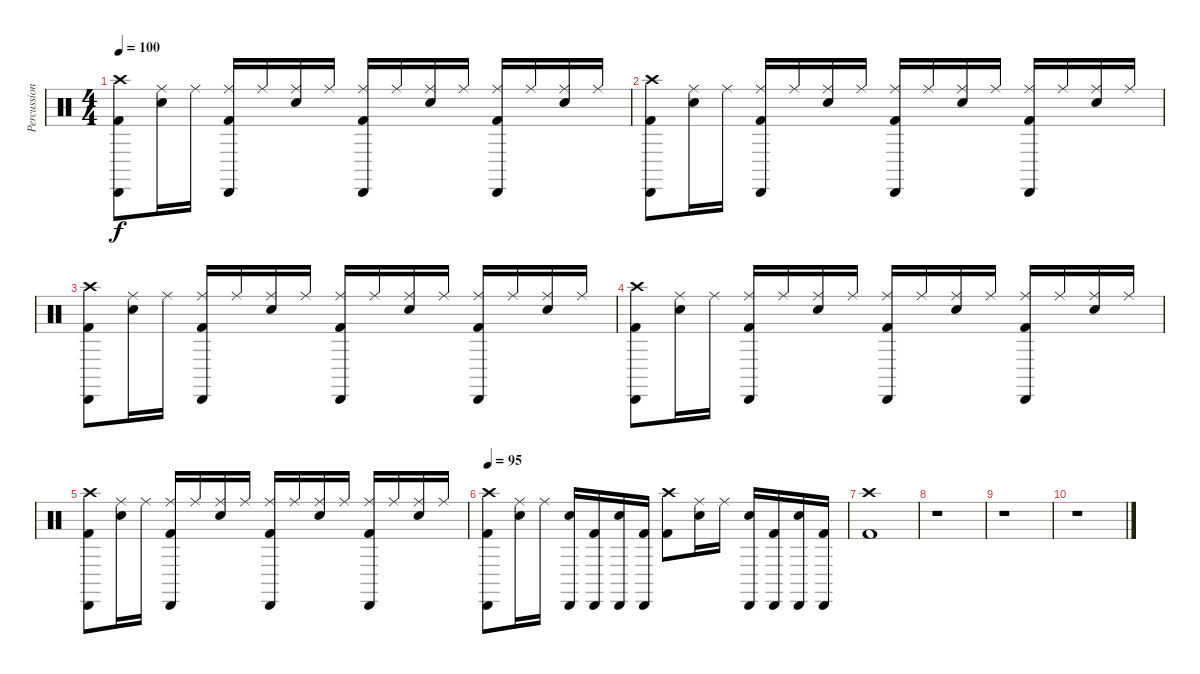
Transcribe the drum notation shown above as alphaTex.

\track ("Percussion" "Percussion") {instrument percussion}
\staff {score}
\articulation defaults
\ts (4 4)
\tempo 100
\clef neutral
\ks c
("Crash high (hit)" "Cabasa (hit)" "Kick (hit) 2").8{dy f} ("Ride (middle)" "Snare (hit) 2").16 "Ride (middle)".16 ("Ride (middle)" "Cabasa (hit)" "Kick (hit) 2").16 "Ride (middle)".16 ("Ride (middle)" "Snare (hit) 2").16 "Ride (middle)".16 ("Ride (middle)" "Cabasa (hit)" "Kick (hit) 2").16 "Ride (middle)".16 ("Ride (middle)" "Snare (hit) 2").16 "Ride (middle)".16 ("Ride (middle)" "Cabasa (hit)" "Kick (hit) 2").16 "Ride (middle)".16 ("Ride (middle)" "Snare (hit) 2").16 "Ride (middle)".16 |
("Crash high (hit)" "Cabasa (hit)" "Kick (hit) 2").8 ("Ride (middle)" "Snare (hit) 2").16 "Ride (middle)".16 ("Ride (middle)" "Cabasa (hit)" "Kick (hit) 2").16 "Ride (middle)".16 ("Ride (middle)" "Snare (hit) 2").16 "Ride (middle)".16 ("Ride (middle)" "Cabasa (hit)" "Kick (hit) 2").16 "Ride (middle)".16 ("Ride (middle)" "Snare (hit) 2").16 "Ride (middle)".16 ("Ride (middle)" "Cabasa (hit)" "Kick (hit) 2").16 "Ride (middle)".16 ("Ride (middle)" "Snare (hit) 2").16 "Ride (middle)".16 |
("Crash high (hit)" "Cabasa (hit)" "Kick (hit) 2").8 ("Ride (middle)" "Snare (hit) 2").16 "Ride (middle)".16 ("Ride (middle)" "Cabasa (hit)" "Kick (hit) 2").16 "Ride (middle)".16 ("Ride (middle)" "Snare (hit) 2").16 "Ride (middle)".16 ("Ride (middle)" "Cabasa (hit)" "Kick (hit) 2").16 "Ride (middle)".16 ("Ride (middle)" "Snare (hit) 2").16 "Ride (middle)".16 ("Ride (middle)" "Cabasa (hit)" "Kick (hit) 2").16 "Ride (middle)".16 ("Ride (middle)" "Snare (hit) 2").16 "Ride (middle)".16 |
("Crash high (hit)" "Cabasa (hit)" "Kick (hit) 2").8 ("Ride (middle)" "Snare (hit) 2").16 "Ride (middle)".16 ("Ride (middle)" "Cabasa (hit)" "Kick (hit) 2").16 "Ride (middle)".16 ("Ride (middle)" "Snare (hit) 2").16 "Ride (middle)".16 ("Ride (middle)" "Cabasa (hit)" "Kick (hit) 2").16 "Ride (middle)".16 ("Ride (middle)" "Snare (hit) 2").16 "Ride (middle)".16 ("Ride (middle)" "Cabasa (hit)" "Kick (hit) 2").16 "Ride (middle)".16 ("Ride (middle)" "Snare (hit) 2").16 "Ride (middle)".16 |
("Crash high (hit)" "Cabasa (hit)" "Kick (hit) 2").8 ("Ride (middle)" "Snare (hit) 2").16 "Ride (middle)".16 ("Ride (middle)" "Cabasa (hit)" "Kick (hit) 2").16 "Ride (middle)".16 ("Ride (middle)" "Snare (hit) 2").16 "Ride (middle)".16 ("Ride (middle)" "Cabasa (hit)" "Kick (hit) 2").16 "Ride (middle)".16 ("Ride (middle)" "Snare (hit) 2").16 "Ride (middle)".16 ("Ride (middle)" "Cabasa (hit)" "Kick (hit) 2").16 "Ride (middle)".16 ("Ride (middle)" "Snare (hit) 2").16 "Ride (middle)".16 |
\tempo 95
("Crash high (hit)" "Cabasa (hit)" "Kick (hit) 2").8 ("Ride (middle)" "Snare (hit) 2").16 "Ride (middle)".16 ("Cabasa (hit)" "Snare (hit) 2").16 ("Cabasa (hit)" "Kick (hit) 2").16 ("Cabasa (hit)" "Snare (hit) 2").16 ("Cabasa (hit)" "Kick (hit) 2").16 ("Crash high (hit)" "Kick (hit) 2").8 ("Ride (middle)" "Snare (hit) 2").16 "Ride (middle)".16 ("Cabasa (hit)" "Snare (hit) 2").16 ("Cabasa (hit)" "Kick (hit) 2").16 ("Cabasa (hit)" "Snare (hit) 2").16 ("Cabasa (hit)" "Kick (hit) 2").16 |
("Crash high (hit)" "Kick (hit) 2").1 |
r.1 |
r.1 |
r.1
